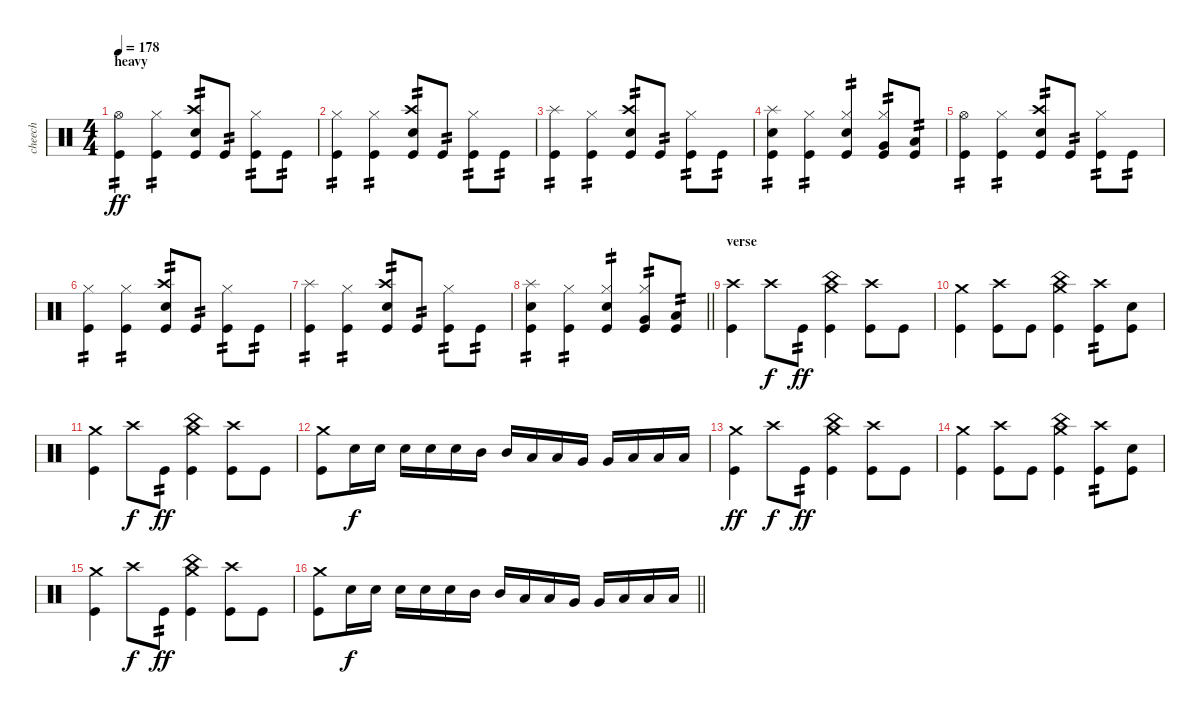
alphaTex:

\track ("cheech" "cheech") {solo instrument percussion}
\staff {score}
\articulation defaults
\ts (4 4)
\section ("" "heavy")
\tempo 178
\clef neutral
\ks c
("Hi-Hat (open)" "Kick (hit)").4{tp 2 dy ff} ("Hi-Hat (closed)" "Kick (hit)").4{tp 2} ("Crash high (hit)" "Electric Snare (hit)" "Kick (hit)").8{tp 2} "Kick (hit)".8{tp 2} ("Hi-Hat (closed)" "Kick (hit)").8{tp 2} "Kick (hit)".8{tp 2} |
("Hi-Hat (closed)" "Kick (hit)").4{tp 2} ("Hi-Hat (closed)" "Kick (hit)").4{tp 2} ("Crash high (hit)" "Electric Snare (hit)" "Kick (hit)").8{tp 2} "Kick (hit)".8{tp 2} ("Hi-Hat (closed)" "Kick (hit)").8{tp 2} "Kick (hit)".8{tp 2} |
("Splash (hit)" "Kick (hit)").4{tp 2} ("Hi-Hat (closed)" "Kick (hit)").4{tp 2} ("Crash high (hit)" "Electric Snare (hit)" "Kick (hit)").8{tp 2} "Kick (hit)".8{tp 2} ("Hi-Hat (closed)" "Kick (hit)").8{tp 2} "Kick (hit)".8{tp 2} |
("Splash (hit)" "Electric Snare (hit)" "Kick (hit)").4{tp 2} ("Hi-Hat (closed)" "Kick (hit)").4{tp 2} ("Hi-Hat (closed)" "Electric Snare (hit)" "Kick (hit)").4{tp 2} ("Hi-Hat (closed)" "Very Low Tom (hit)" "Kick (hit)").8{tp 2} ("Low Floor Tom (hit)" "Kick (hit)").8{tp 2} |
("Hi-Hat (open)" "Kick (hit)").4{tp 2} ("Hi-Hat (closed)" "Kick (hit)").4{tp 2} ("Crash high (hit)" "Electric Snare (hit)" "Kick (hit)").8{tp 2} "Kick (hit)".8{tp 2} ("Hi-Hat (closed)" "Kick (hit)").8{tp 2} "Kick (hit)".8{tp 2} |
("Hi-Hat (closed)" "Kick (hit)").4{tp 2} ("Hi-Hat (closed)" "Kick (hit)").4{tp 2} ("Crash high (hit)" "Electric Snare (hit)" "Kick (hit)").8{tp 2} "Kick (hit)".8{tp 2} ("Hi-Hat (closed)" "Kick (hit)").8{tp 2} "Kick (hit)".8{tp 2} |
("Splash (hit)" "Kick (hit)").4{tp 2} ("Hi-Hat (closed)" "Kick (hit)").4{tp 2} ("Crash high (hit)" "Electric Snare (hit)" "Kick (hit)").8{tp 2} "Kick (hit)".8{tp 2} ("Hi-Hat (closed)" "Kick (hit)").8{tp 2} "Kick (hit)".8{tp 2} |
\barLineRight lightlight
("Splash (hit)" "Electric Snare (hit)" "Kick (hit)").4{tp 2} ("Hi-Hat (closed)" "Kick (hit)").4{tp 2} ("Hi-Hat (closed)" "Electric Snare (hit)" "Kick (hit)").4{tp 2} ("Hi-Hat (closed)" "Very Low Tom (hit)" "Kick (hit)").8{tp 2} ("Low Floor Tom (hit)" "Kick (hit)").8{tp 2} |
\section ("" "verse")
("Crash high (hit)" "Kick (hit)").4 "Crash high (hit)".8{dy f} "Kick (hit)".8{tp 2 dy ff} ("China (hit)" "Crash medium (hit)" "Kick (hit)").4 ("Crash high (hit)" "Kick (hit)").8 "Kick (hit)".8 |
("Crash medium (hit)" "Kick (hit)").4 ("Crash high (hit)" "Kick (hit)").8 "Kick (hit)".8 ("China (hit)" "Crash medium (hit)" "Kick (hit)").4 ("Crash high (hit)" "Kick (hit)").8{tp 2} ("Electric Snare (hit)" "Kick (hit)").8 |
("Crash medium (hit)" "Kick (hit)").4 "Crash high (hit)".8{dy f} "Kick (hit)".8{tp 2 dy ff} ("China (hit)" "Crash medium (hit)" "Kick (hit)").4 ("Crash high (hit)" "Kick (hit)").8 "Kick (hit)".8 |
("Crash medium (hit)" "Kick (hit)").8 "Electric Snare (hit)".16{dy f} "Electric Snare (hit)".16 "Electric Snare (hit)".16 "Electric Snare (hit)".16 "Electric Snare (hit)".16 "Mid Tom (hit)".16 "Mid Tom (hit)".16 "Low Tom (hit)".16 "Low Tom (hit)".16 "Very Low Tom (hit)".16 "Very Low Tom (hit)".16 "Low Floor Tom (hit)".16 "Low Floor Tom (hit)".16 "Low Floor Tom (hit)".16 |
("Crash medium (hit)" "Kick (hit)").4{dy ff} "Crash high (hit)".8{dy f} "Kick (hit)".8{tp 2 dy ff} ("China (hit)" "Crash medium (hit)" "Kick (hit)").4 ("Crash high (hit)" "Kick (hit)").8 "Kick (hit)".8 |
("Crash medium (hit)" "Kick (hit)").4 ("Crash high (hit)" "Kick (hit)").8 "Kick (hit)".8 ("China (hit)" "Crash medium (hit)" "Kick (hit)").4 ("Crash high (hit)" "Kick (hit)").8{tp 2} ("Electric Snare (hit)" "Kick (hit)").8 |
("Crash medium (hit)" "Kick (hit)").4 "Crash high (hit)".8{dy f} "Kick (hit)".8{tp 2 dy ff} ("China (hit)" "Crash medium (hit)" "Kick (hit)").4 ("Crash high (hit)" "Kick (hit)").8 "Kick (hit)".8 |
\barLineRight lightlight
("Crash medium (hit)" "Kick (hit)").8 "Electric Snare (hit)".16{dy f} "Electric Snare (hit)".16 "Electric Snare (hit)".16 "Electric Snare (hit)".16 "Electric Snare (hit)".16 "Mid Tom (hit)".16 "Mid Tom (hit)".16 "Low Tom (hit)".16 "Low Tom (hit)".16 "Very Low Tom (hit)".16 "Very Low Tom (hit)".16 "Low Floor Tom (hit)".16 "Low Floor Tom (hit)".16 "Low Floor Tom (hit)".16
